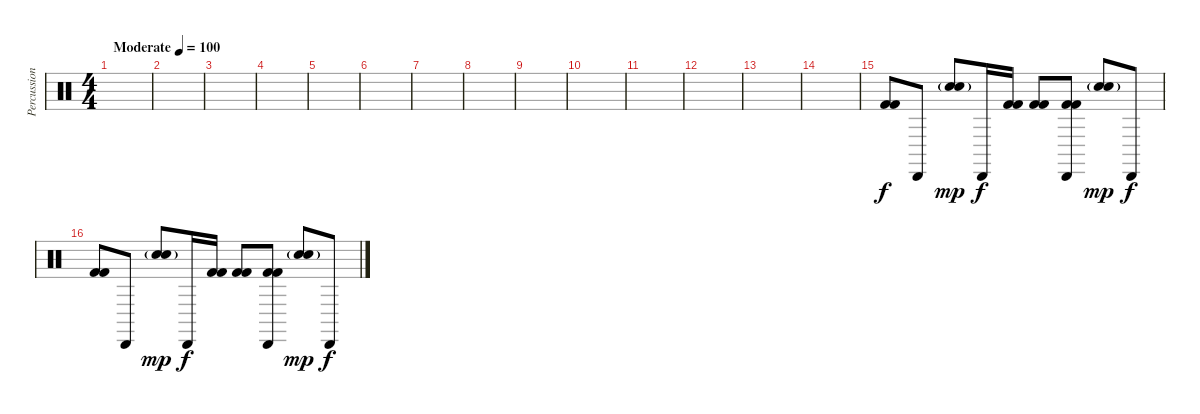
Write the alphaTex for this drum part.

\track ("Percussioni" "Percussion") {instrument percussion}
\staff {score}
\articulation defaults
\ts (4 4)
\tempo (100 "Moderate")
\clef neutral
\ks c
|
|
|
|
|
|
|
|
|
|
|
|
|
|
("Kick (hit) 2" "Kick (hit) 2").8 "Cabasa (hit)".8 ("Electric Snare (hit)"{g} "Snare (hit) 2").8{dy mp} "Cabasa (hit)".16{dy f} ("Kick (hit) 2" "Kick (hit) 2").16 ("Kick (hit) 2" "Kick (hit) 2").8 ("Cabasa (hit)" "Kick (hit) 2" "Kick (hit) 2").8 ("Electric Snare (hit)"{g} "Snare (hit) 2").8{dy mp} "Cabasa (hit)".8{dy f} |
("Kick (hit) 2" "Kick (hit) 2").8 "Cabasa (hit)".8 ("Electric Snare (hit)"{g} "Snare (hit) 2").8{dy mp} "Cabasa (hit)".16{dy f} ("Kick (hit) 2" "Kick (hit) 2").16 ("Kick (hit) 2" "Kick (hit) 2").8 ("Cabasa (hit)" "Kick (hit) 2" "Kick (hit) 2").8 ("Electric Snare (hit)"{g} "Snare (hit) 2").8{dy mp} "Cabasa (hit)".8{dy f}
